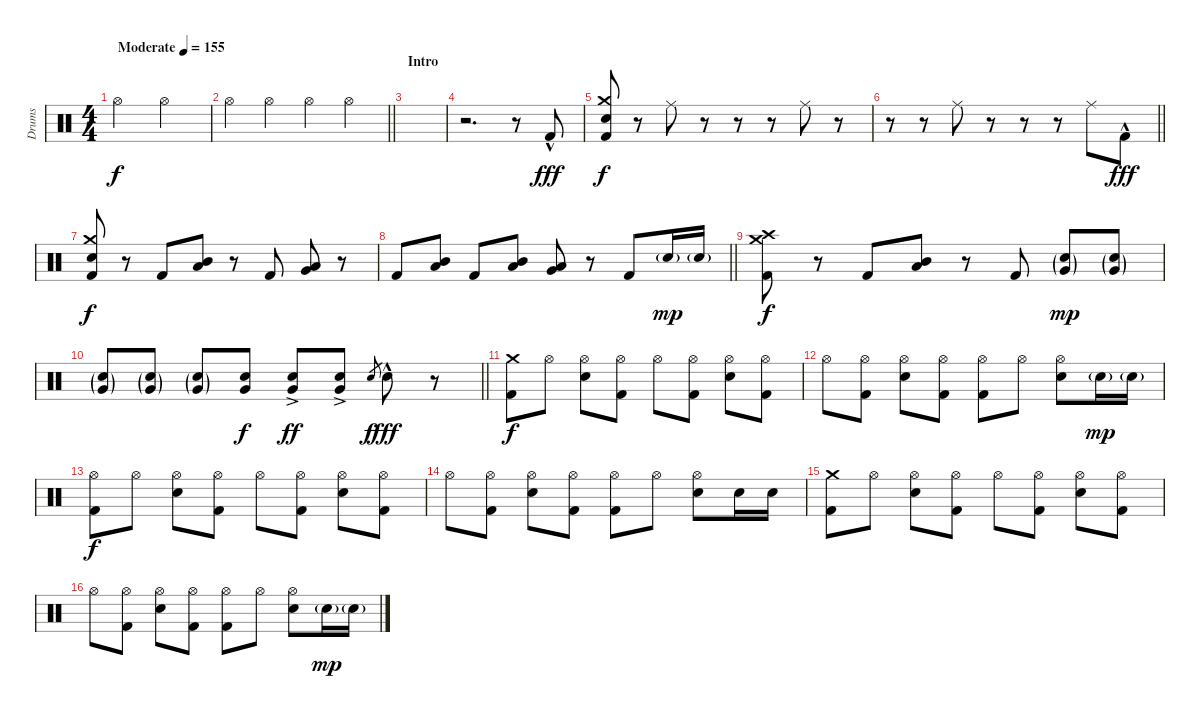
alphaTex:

\track ("Drums" "Drums") {instrument percussion}
\staff {score}
\articulation defaults
\ts (4 4)
\tempo (155 "Moderate")
\clef neutral
\ks c "Hi-Hat (open)".2{dy f} "Hi-Hat (open)".2
|
\barLineRight lightlight "Hi-Hat (open)".4 "Hi-Hat (open)".4 "Hi-Hat (open)".4 "Hi-Hat (open)".4
|
\section ("" "Intro")
|
r.2{d} r.8 "Kick (hit) 2"{hac}.8{dy fff} |
("Crash medium (hit)" "Snare (hit) 2" "Kick (hit) 2").8{dy f} r.8 "Ride (middle)".8 r.8 r.8 r.8 "Ride (middle)".8 r.8 |
\barLineRight lightlight
r.8 r.8 "Ride (middle)".8 r.8 r.8 r.8 "Ride (middle)".8 "Kick (hit) 2"{hac}.8{dy fff} |
("Crash medium (hit)" "Snare (hit) 2" "Kick (hit) 2").8{dy f} r.8 "Kick (hit) 2".8 ("Mid Tom (hit)" "Low Tom (hit)").8 r.8 "Kick (hit) 2".8 ("Low Tom (hit)" "Very Low Tom (hit)").8 r.8 |
\barLineRight lightlight "Kick (hit) 2".8
("Mid Tom (hit)" "Low Tom (hit)").8 "Kick (hit) 2".8 ("Mid Tom (hit)" "Low Tom (hit)").8 ("Low Tom (hit)" "Very Low Tom (hit)").8 r.8 "Kick (hit) 2".8 "Snare (hit) 2"{g}.16{dy mp} "Snare (hit) 2"{g}.16 |
("Crash medium (hit)" "Crash high (hit)" "Kick (hit) 2").8{dy f} r.8 "Kick (hit) 2".8 ("Mid Tom (hit)" "Low Tom (hit)").8 r.8 "Kick (hit) 2".8 ("Snare (hit) 2"{g} "Very Low Tom (hit)"{g}).8{dy mp} ("Snare (hit) 2"{g} "Very Low Tom (hit)"{g}).8 |
\barLineRight lightlight
("Snare (hit) 2"{g} "Very Low Tom (hit)"{g}).8 ("Snare (hit) 2"{g} "Very Low Tom (hit)"{g}).8 ("Snare (hit) 2"{g} "Very Low Tom (hit)"{g}).8 ("Snare (hit) 2" "Very Low Tom (hit)").8{dy f} ("Snare (hit) 2"{ac} "Very Low Tom (hit)").8{dy ff} ("Snare (hit) 2"{ac} "Very Low Tom (hit)").8 "Snare (hit) 2".8{gr dy f} "Snare (hit) 2"{hac}.8{dy fff} r.8 |
("Crash medium (hit)" "Kick (hit) 2").8{dy f} "Hi-Hat (open)".8 ("Hi-Hat (open)" "Snare (hit) 2").8 ("Hi-Hat (open)" "Kick (hit) 2").8 "Hi-Hat (open)".8 ("Hi-Hat (open)" "Kick (hit) 2").8 ("Hi-Hat (open)" "Snare (hit) 2").8 ("Hi-Hat (open)" "Kick (hit) 2").8 |
"Hi-Hat (open)".8 ("Hi-Hat (open)" "Kick (hit) 2").8 ("Hi-Hat (open)" "Snare (hit) 2").8 ("Hi-Hat (open)" "Kick (hit) 2").8 ("Hi-Hat (open)" "Kick (hit) 2").8 "Hi-Hat (open)".8 ("Hi-Hat (open)" "Snare (hit) 2").8 "Snare (hit) 2"{g}.16{dy mp} "Snare (hit) 2"{g}.16 |
("Hi-Hat (open)" "Kick (hit) 2").8{dy f} "Hi-Hat (open)".8 ("Hi-Hat (open)" "Snare (hit) 2").8 ("Hi-Hat (open)" "Kick (hit) 2").8 "Hi-Hat (open)".8 ("Hi-Hat (open)" "Kick (hit) 2").8 ("Hi-Hat (open)" "Snare (hit) 2").8 ("Hi-Hat (open)" "Kick (hit) 2").8 |
"Hi-Hat (open)".8 ("Hi-Hat (open)" "Kick (hit) 2").8 ("Hi-Hat (open)" "Snare (hit) 2").8 ("Hi-Hat (open)" "Kick (hit) 2").8 ("Hi-Hat (open)" "Kick (hit) 2").8 "Hi-Hat (open)".8 ("Hi-Hat (open)" "Snare (hit) 2").8 "Snare (hit) 2".16 "Snare (hit) 2".16 |
("Crash medium (hit)" "Kick (hit) 2").8 "Hi-Hat (open)".8 ("Hi-Hat (open)" "Snare (hit) 2").8 ("Hi-Hat (open)" "Kick (hit) 2").8 "Hi-Hat (open)".8 ("Hi-Hat (open)" "Kick (hit) 2").8 ("Hi-Hat (open)" "Snare (hit) 2").8 ("Hi-Hat (open)" "Kick (hit) 2").8 |
"Hi-Hat (open)".8 ("Hi-Hat (open)" "Kick (hit) 2").8 ("Hi-Hat (open)" "Snare (hit) 2").8 ("Hi-Hat (open)" "Kick (hit) 2").8 ("Hi-Hat (open)" "Kick (hit) 2").8 "Hi-Hat (open)".8 ("Hi-Hat (open)" "Snare (hit) 2").8 "Snare (hit) 2"{g}.16{dy mp} "Snare (hit) 2"{g}.16
